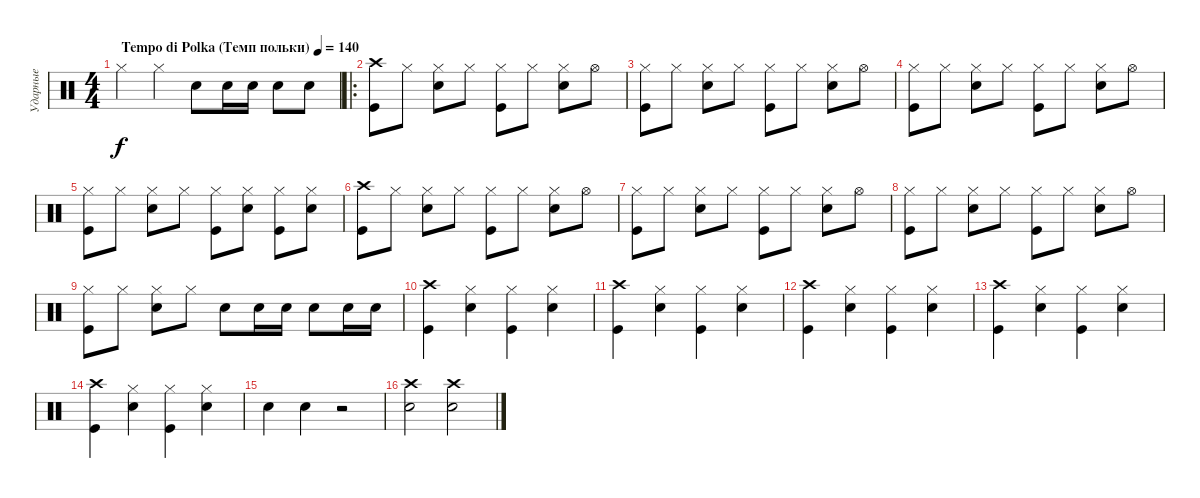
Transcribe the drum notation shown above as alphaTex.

\track ("Ударные" "Ударные") {instrument percussion}
\staff {score}
\articulation defaults
\ts (4 4)
\tempo (140 "Tempo di Polka (Темп польки)")
\clef neutral
\ks c "Hi-Hat (closed)".4{dy f} "Hi-Hat (closed)".4 "Snare (hit) 2".8 "Snare (hit) 2".16 "Snare (hit) 2".16 "Snare (hit) 2".8 "Snare (hit) 2".8
|
\ro
("Crash high (hit)" "Kick (hit)").8 "Hi-Hat (closed)".8 ("Hi-Hat (closed)" "Snare (hit) 2").8 "Hi-Hat (closed)".8 ("Hi-Hat (closed)" "Kick (hit)").8 "Hi-Hat (closed)".8 ("Hi-Hat (closed)" "Snare (hit) 2").8 "Hi-Hat (open)".8 |
("Hi-Hat (closed)" "Kick (hit)").8 "Hi-Hat (closed)".8 ("Hi-Hat (closed)" "Snare (hit) 2").8 "Hi-Hat (closed)".8 ("Hi-Hat (closed)" "Kick (hit)").8 "Hi-Hat (closed)".8 ("Hi-Hat (closed)" "Snare (hit) 2").8 "Hi-Hat (open)".8 |
("Hi-Hat (closed)" "Kick (hit)").8 "Hi-Hat (closed)".8 ("Hi-Hat (closed)" "Snare (hit) 2").8 "Hi-Hat (closed)".8 ("Hi-Hat (closed)" "Kick (hit)").8 "Hi-Hat (closed)".8 ("Hi-Hat (closed)" "Snare (hit) 2").8 "Hi-Hat (open)".8 |
("Hi-Hat (closed)" "Kick (hit)").8 "Hi-Hat (closed)".8 ("Hi-Hat (closed)" "Snare (hit) 2").8 "Hi-Hat (closed)".8 ("Hi-Hat (closed)" "Kick (hit)").8 ("Hi-Hat (closed)" "Snare (hit) 2").8 ("Hi-Hat (closed)" "Kick (hit)").8 ("Hi-Hat (closed)" "Snare (hit) 2").8 |
("Crash high (hit)" "Kick (hit)").8 "Hi-Hat (closed)".8 ("Hi-Hat (closed)" "Snare (hit) 2").8 "Hi-Hat (closed)".8 ("Hi-Hat (closed)" "Kick (hit)").8 "Hi-Hat (closed)".8 ("Hi-Hat (closed)" "Snare (hit) 2").8 "Hi-Hat (open)".8 |
("Hi-Hat (closed)" "Kick (hit)").8 "Hi-Hat (closed)".8 ("Hi-Hat (closed)" "Snare (hit) 2").8 "Hi-Hat (closed)".8 ("Hi-Hat (closed)" "Kick (hit)").8 "Hi-Hat (closed)".8 ("Hi-Hat (closed)" "Snare (hit) 2").8 "Hi-Hat (open)".8 |
("Hi-Hat (closed)" "Kick (hit)").8 "Hi-Hat (closed)".8 ("Hi-Hat (closed)" "Snare (hit) 2").8 "Hi-Hat (closed)".8 ("Hi-Hat (closed)" "Kick (hit)").8 "Hi-Hat (closed)".8 ("Hi-Hat (closed)" "Snare (hit) 2").8 "Hi-Hat (open)".8 |
("Hi-Hat (closed)" "Kick (hit)").8 "Hi-Hat (closed)".8 ("Hi-Hat (closed)" "Snare (hit) 2").8 "Hi-Hat (closed)".8 "Snare (hit) 2".8 "Snare (hit) 2".16 "Snare (hit) 2".16 "Snare (hit) 2".8 "Snare (hit) 2".16 "Snare (hit) 2".16 |
("Crash high (hit)" "Kick (hit)").4 ("Hi-Hat (closed)" "Snare (hit) 2").4 ("Hi-Hat (closed)" "Kick (hit)").4 ("Hi-Hat (closed)" "Snare (hit) 2").4 |
("Crash high (hit)" "Kick (hit)").4 ("Hi-Hat (closed)" "Snare (hit) 2").4 ("Hi-Hat (closed)" "Kick (hit)").4 ("Hi-Hat (closed)" "Snare (hit) 2").4 |
("Crash high (hit)" "Kick (hit)").4 ("Hi-Hat (closed)" "Snare (hit) 2").4 ("Hi-Hat (closed)" "Kick (hit)").4 ("Hi-Hat (closed)" "Snare (hit) 2").4 |
("Crash high (hit)" "Kick (hit)").4 ("Hi-Hat (closed)" "Snare (hit) 2").4 ("Hi-Hat (closed)" "Kick (hit)").4 ("Hi-Hat (closed)" "Snare (hit) 2").4 |
("Crash high (hit)" "Kick (hit)").4 ("Hi-Hat (closed)" "Snare (hit) 2").4 ("Hi-Hat (closed)" "Kick (hit)").4 ("Hi-Hat (closed)" "Snare (hit) 2").4 |
"Snare (hit) 2".4 "Snare (hit) 2".4 r.2 |
("Crash high (hit)" "Snare (hit) 2").2 ("Crash high (hit)" "Snare (hit) 2").2
